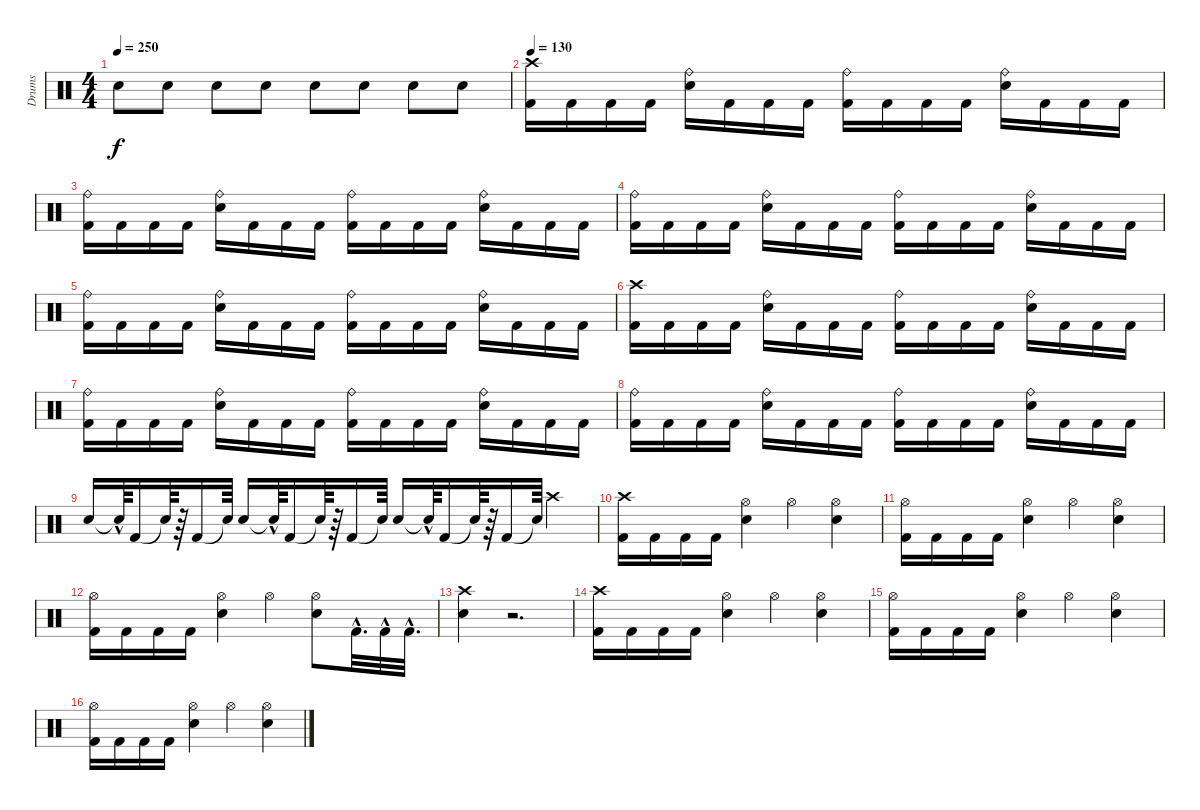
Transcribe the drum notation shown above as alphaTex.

\track ("Drums" "Drums") {instrument percussion}
\staff {score}
\articulation defaults
\ts (4 4)
\tempo 250
\clef neutral
\ks c "Snare (hit) 2".8{dy f} "Snare (hit) 2".8 "Snare (hit) 2".8 "Snare (hit) 2".8 "Snare (hit) 2".8 "Snare (hit) 2".8 "Snare (hit) 2".8 "Snare (hit) 2".8
|
\tempo 130
("Crash high (hit)" "Kick (hit) 2").16 "Kick (hit) 2".16 "Kick (hit) 2".16 "Kick (hit) 2".16 ("Snare (hit) 2" "Ride (bell)").16 "Kick (hit) 2".16 "Kick (hit) 2".16 "Kick (hit) 2".16 ("Ride (bell)" "Kick (hit) 2").16 "Kick (hit) 2".16 "Kick (hit) 2".16 "Kick (hit) 2".16 ("Ride (bell)" "Snare (hit) 2").16 "Kick (hit) 2".16 "Kick (hit) 2".16 "Kick (hit) 2".16 |
("Kick (hit) 2" "Ride (bell)").16 "Kick (hit) 2".16 "Kick (hit) 2".16 "Kick (hit) 2".16 ("Snare (hit) 2" "Ride (bell)").16 "Kick (hit) 2".16 "Kick (hit) 2".16 "Kick (hit) 2".16 ("Ride (bell)" "Kick (hit) 2").16 "Kick (hit) 2".16 "Kick (hit) 2".16 "Kick (hit) 2".16 ("Snare (hit) 2" "Ride (bell)").16 "Kick (hit) 2".16 "Kick (hit) 2".16 "Kick (hit) 2".16 |
("Ride (bell)" "Kick (hit) 2").16 "Kick (hit) 2".16 "Kick (hit) 2".16 "Kick (hit) 2".16 ("Ride (bell)" "Snare (hit) 2").16 "Kick (hit) 2".16 "Kick (hit) 2".16 "Kick (hit) 2".16 ("Kick (hit) 2" "Ride (bell)").16 "Kick (hit) 2".16 "Kick (hit) 2".16 "Kick (hit) 2".16 ("Snare (hit) 2" "Ride (bell)").16 "Kick (hit) 2".16 "Kick (hit) 2".16 "Kick (hit) 2".16 |
("Ride (bell)" "Kick (hit) 2").16 "Kick (hit) 2".16 "Kick (hit) 2".16 "Kick (hit) 2".16 ("Ride (bell)" "Snare (hit) 2").16 "Kick (hit) 2".16 "Kick (hit) 2".16 "Kick (hit) 2".16 ("Kick (hit) 2" "Ride (bell)").16 "Kick (hit) 2".16 "Kick (hit) 2".16 "Kick (hit) 2".16 ("Snare (hit) 2" "Ride (bell)").16 "Kick (hit) 2".16 "Kick (hit) 2".16 "Kick (hit) 2".16 |
("Kick (hit) 2" "Crash high (hit)").16 "Kick (hit) 2".16 "Kick (hit) 2".16 "Kick (hit) 2".16 ("Snare (hit) 2" "Ride (bell)").16 "Kick (hit) 2".16 "Kick (hit) 2".16 "Kick (hit) 2".16 ("Kick (hit) 2" "Ride (bell)").16 "Kick (hit) 2".16 "Kick (hit) 2".16 "Kick (hit) 2".16 ("Ride (bell)" "Snare (hit) 2").16 "Kick (hit) 2".16 "Kick (hit) 2".16 "Kick (hit) 2".16 |
("Kick (hit) 2" "Ride (bell)").16 "Kick (hit) 2".16 "Kick (hit) 2".16 "Kick (hit) 2".16 ("Ride (bell)" "Snare (hit) 2").16 "Kick (hit) 2".16 "Kick (hit) 2".16 "Kick (hit) 2".16 ("Ride (bell)" "Kick (hit) 2").16 "Kick (hit) 2".16 "Kick (hit) 2".16 "Kick (hit) 2".16 ("Ride (bell)" "Snare (hit) 2").16 "Kick (hit) 2".16 "Kick (hit) 2".16 "Kick (hit) 2".16 |
("Kick (hit) 2" "Ride (bell)").16 "Kick (hit) 2".16 "Kick (hit) 2".16 "Kick (hit) 2".16 ("Ride (bell)" "Snare (hit) 2").16 "Kick (hit) 2".16 "Kick (hit) 2".16 "Kick (hit) 2".16 ("Ride (bell)" "Kick (hit) 2").16 "Kick (hit) 2".16 "Kick (hit) 2".16 "Kick (hit) 2".16 ("Snare (hit) 2" "Ride (bell)").16 "Kick (hit) 2".16 "Kick (hit) 2".16 "Kick (hit) 2".16 |
"Snare (hit) 2".16 "Snare (hit)"{hac t}.64 "Kick (hit) 2".16 "Snare (hit)"{t}.64 r.64 "Kick (hit) 2".16 "Snare (hit)"{t}.64 "Snare (hit) 2".16 "Snare (hit)"{hac t}.64 "Kick (hit) 2".16 "Snare (hit)"{t}.64 r.64 "Kick (hit) 2".16 "Snare (hit)"{t}.64 "Snare (hit) 2".16 "Snare (hit)"{hac t}.64 "Kick (hit) 2".16 "Snare (hit)"{t}.64 r.64 "Kick (hit) 2".16 "Snare (hit)"{t}.64 "Crash high (hit)".4 |
("Kick (hit) 2" "Crash high (hit)").16 "Kick (hit) 2".16 "Kick (hit) 2".16 "Kick (hit) 2".16 ("Hi-Hat (open)" "Snare (hit) 2").4 "Hi-Hat (open)".4 ("Snare (hit) 2" "Hi-Hat (open)").4 |
("Hi-Hat (open)" "Kick (hit) 2").16 "Kick (hit) 2".16 "Kick (hit) 2".16 "Kick (hit) 2".16 ("Snare (hit) 2" "Hi-Hat (open)").4 "Hi-Hat (open)".4 ("Snare (hit) 2" "Hi-Hat (open)").4 |
("Kick (hit) 2" "Hi-Hat (open)").16 "Kick (hit) 2".16 "Kick (hit) 2".16 "Kick (hit) 2".16 ("Snare (hit) 2" "Hi-Hat (open)").4 "Hi-Hat (open)".4 ("Hi-Hat (open)" "Snare (hit) 2").8 "Kick (hit) 2"{hac}.32{d} "Kick (hit) 2"{hac}.32 "Kick (hit) 2"{hac}.32{d} |
("Crash high (hit)" "Snare (hit) 2").4 r.2{d} |
("Kick (hit) 2" "Crash high (hit)").16 "Kick (hit) 2".16 "Kick (hit) 2".16 "Kick (hit) 2".16 ("Snare (hit) 2" "Hi-Hat (open)").4 "Hi-Hat (open)".4 ("Hi-Hat (open)" "Snare (hit) 2").4 |
("Hi-Hat (open)" "Kick (hit) 2").16 "Kick (hit) 2".16 "Kick (hit) 2".16 "Kick (hit) 2".16 ("Snare (hit) 2" "Hi-Hat (open)").4 "Hi-Hat (open)".4 ("Snare (hit) 2" "Hi-Hat (open)").4 |
("Hi-Hat (open)" "Kick (hit) 2").16 "Kick (hit) 2".16 "Kick (hit) 2".16 "Kick (hit) 2".16 ("Snare (hit) 2" "Hi-Hat (open)").4 "Hi-Hat (open)".4 ("Snare (hit) 2" "Hi-Hat (open)").4
